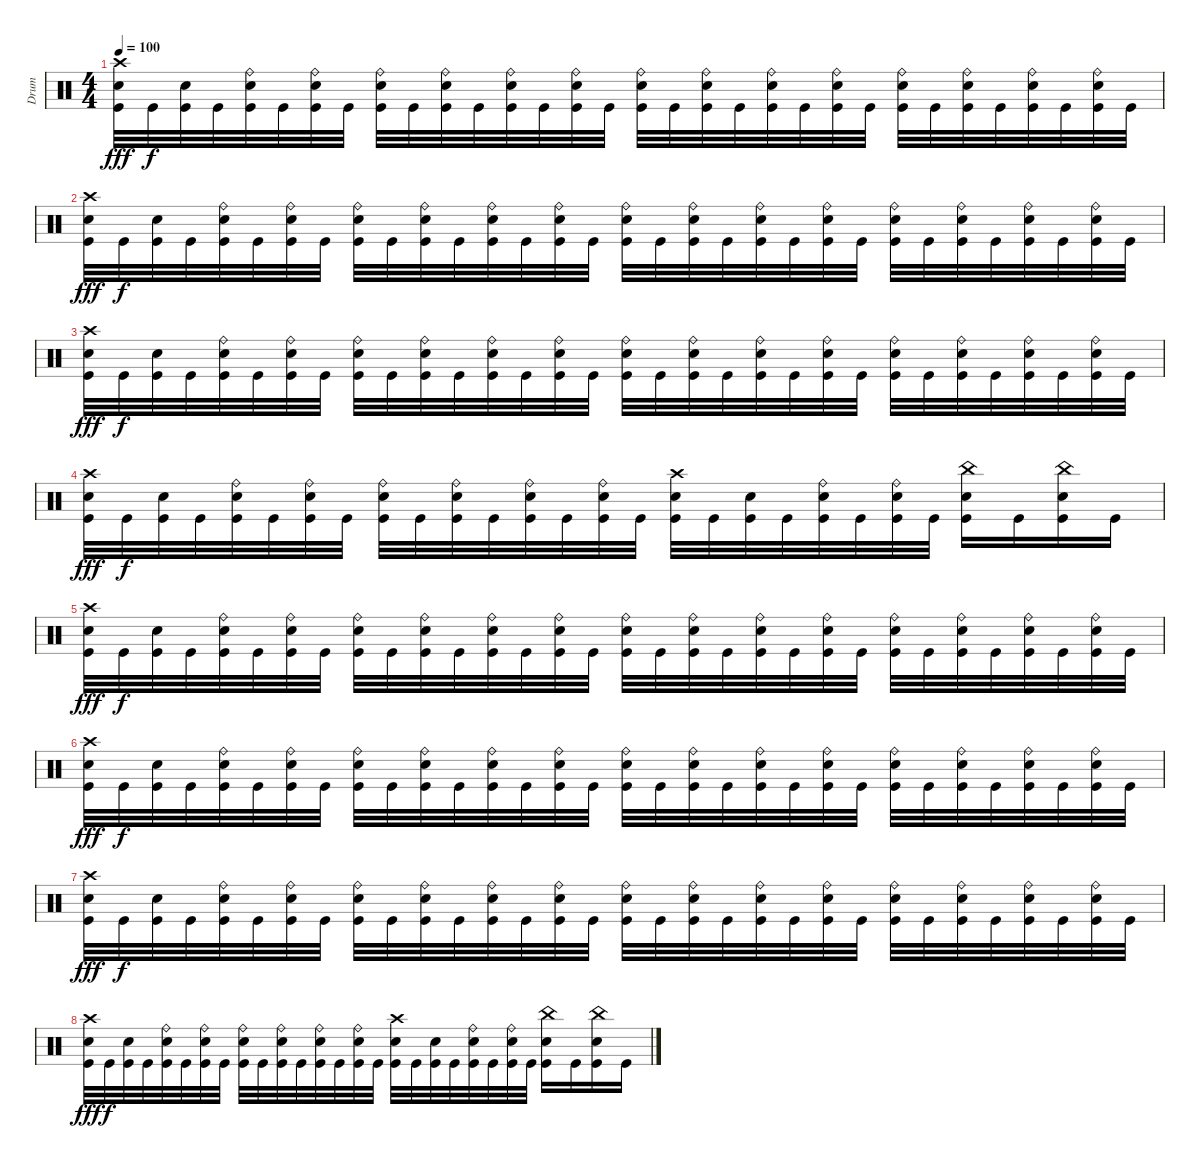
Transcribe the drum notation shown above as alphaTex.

\track ("Drum" "Drum") {instrument percussion}
\staff {score}
\articulation defaults
\ts (4 4)
\tempo 100
\clef neutral
\ks c
("Crash high (hit)" "Electric Snare (hit)" "Kick (hit)").32{dy fff} "Kick (hit)".32{dy f} ("Electric Snare (hit)" "Kick (hit)").32 "Kick (hit)".32 ("Ride (bell)" "Electric Snare (hit)" "Kick (hit)").32 "Kick (hit)".32 ("Ride (bell)" "Electric Snare (hit)" "Kick (hit)").32 "Kick (hit)".32 ("Ride (bell)" "Electric Snare (hit)" "Kick (hit)").32 "Kick (hit)".32 ("Ride (bell)" "Electric Snare (hit)" "Kick (hit)").32 "Kick (hit)".32 ("Ride (bell)" "Electric Snare (hit)" "Kick (hit)").32 "Kick (hit)".32 ("Ride (bell)" "Electric Snare (hit)" "Kick (hit)").32 "Kick (hit)".32 ("Ride (bell)" "Electric Snare (hit)" "Kick (hit)").32 "Kick (hit)".32 ("Ride (bell)" "Electric Snare (hit)" "Kick (hit)").32 "Kick (hit)".32 ("Ride (bell)" "Electric Snare (hit)" "Kick (hit)").32 "Kick (hit)".32 ("Ride (bell)" "Electric Snare (hit)" "Kick (hit)").32 "Kick (hit)".32 ("Ride (bell)" "Electric Snare (hit)" "Kick (hit)").32 "Kick (hit)".32 ("Ride (bell)" "Electric Snare (hit)" "Kick (hit)").32 "Kick (hit)".32 ("Ride (bell)" "Electric Snare (hit)" "Kick (hit)").32 "Kick (hit)".32 ("Ride (bell)" "Electric Snare (hit)" "Kick (hit)").32 "Kick (hit)".32 |
("Crash high (hit)" "Electric Snare (hit)" "Kick (hit)").32{dy fff} "Kick (hit)".32{dy f} ("Electric Snare (hit)" "Kick (hit)").32 "Kick (hit)".32 ("Ride (bell)" "Electric Snare (hit)" "Kick (hit)").32 "Kick (hit)".32 ("Ride (bell)" "Electric Snare (hit)" "Kick (hit)").32 "Kick (hit)".32 ("Ride (bell)" "Electric Snare (hit)" "Kick (hit)").32 "Kick (hit)".32 ("Ride (bell)" "Electric Snare (hit)" "Kick (hit)").32 "Kick (hit)".32 ("Ride (bell)" "Electric Snare (hit)" "Kick (hit)").32 "Kick (hit)".32 ("Ride (bell)" "Electric Snare (hit)" "Kick (hit)").32 "Kick (hit)".32 ("Ride (bell)" "Electric Snare (hit)" "Kick (hit)").32 "Kick (hit)".32 ("Ride (bell)" "Electric Snare (hit)" "Kick (hit)").32 "Kick (hit)".32 ("Ride (bell)" "Electric Snare (hit)" "Kick (hit)").32 "Kick (hit)".32 ("Ride (bell)" "Electric Snare (hit)" "Kick (hit)").32 "Kick (hit)".32 ("Ride (bell)" "Electric Snare (hit)" "Kick (hit)").32 "Kick (hit)".32 ("Ride (bell)" "Electric Snare (hit)" "Kick (hit)").32 "Kick (hit)".32 ("Ride (bell)" "Electric Snare (hit)" "Kick (hit)").32 "Kick (hit)".32 ("Ride (bell)" "Electric Snare (hit)" "Kick (hit)").32 "Kick (hit)".32 |
("Crash high (hit)" "Electric Snare (hit)" "Kick (hit)").32{dy fff} "Kick (hit)".32{dy f} ("Electric Snare (hit)" "Kick (hit)").32 "Kick (hit)".32 ("Ride (bell)" "Electric Snare (hit)" "Kick (hit)").32 "Kick (hit)".32 ("Ride (bell)" "Electric Snare (hit)" "Kick (hit)").32 "Kick (hit)".32 ("Ride (bell)" "Electric Snare (hit)" "Kick (hit)").32 "Kick (hit)".32 ("Ride (bell)" "Electric Snare (hit)" "Kick (hit)").32 "Kick (hit)".32 ("Ride (bell)" "Electric Snare (hit)" "Kick (hit)").32 "Kick (hit)".32 ("Ride (bell)" "Electric Snare (hit)" "Kick (hit)").32 "Kick (hit)".32 ("Ride (bell)" "Electric Snare (hit)" "Kick (hit)").32 "Kick (hit)".32 ("Ride (bell)" "Electric Snare (hit)" "Kick (hit)").32 "Kick (hit)".32 ("Ride (bell)" "Electric Snare (hit)" "Kick (hit)").32 "Kick (hit)".32 ("Ride (bell)" "Electric Snare (hit)" "Kick (hit)").32 "Kick (hit)".32 ("Ride (bell)" "Electric Snare (hit)" "Kick (hit)").32 "Kick (hit)".32 ("Ride (bell)" "Electric Snare (hit)" "Kick (hit)").32 "Kick (hit)".32 ("Ride (bell)" "Electric Snare (hit)" "Kick (hit)").32 "Kick (hit)".32 ("Ride (bell)" "Electric Snare (hit)" "Kick (hit)").32 "Kick (hit)".32 |
("Crash high (hit)" "Electric Snare (hit)" "Kick (hit)").32{dy fff} "Kick (hit)".32{dy f} ("Electric Snare (hit)" "Kick (hit)").32 "Kick (hit)".32 ("Ride (bell)" "Electric Snare (hit)" "Kick (hit)").32 "Kick (hit)".32 ("Ride (bell)" "Electric Snare (hit)" "Kick (hit)").32 "Kick (hit)".32 ("Ride (bell)" "Electric Snare (hit)" "Kick (hit)").32 "Kick (hit)".32 ("Ride (bell)" "Electric Snare (hit)" "Kick (hit)").32 "Kick (hit)".32 ("Ride (bell)" "Electric Snare (hit)" "Kick (hit)").32 "Kick (hit)".32 ("Ride (bell)" "Electric Snare (hit)" "Kick (hit)").32 "Kick (hit)".32 ("Crash high (hit)" "Electric Snare (hit)" "Kick (hit)").32 "Kick (hit)".32 ("Electric Snare (hit)" "Kick (hit)").32 "Kick (hit)".32 ("Ride (bell)" "Electric Snare (hit)" "Kick (hit)").32 "Kick (hit)".32 ("Ride (bell)" "Electric Snare (hit)" "Kick (hit)").32 "Kick (hit)".32 ("China (hit)" "Electric Snare (hit)" "Kick (hit)").16 "Kick (hit)".16 ("China (hit)" "Electric Snare (hit)" "Kick (hit)").16 "Kick (hit)".16 |
("Crash high (hit)" "Electric Snare (hit)" "Kick (hit)").32{dy fff} "Kick (hit)".32{dy f} ("Electric Snare (hit)" "Kick (hit)").32 "Kick (hit)".32 ("Ride (bell)" "Electric Snare (hit)" "Kick (hit)").32 "Kick (hit)".32 ("Ride (bell)" "Electric Snare (hit)" "Kick (hit)").32 "Kick (hit)".32 ("Ride (bell)" "Electric Snare (hit)" "Kick (hit)").32 "Kick (hit)".32 ("Ride (bell)" "Electric Snare (hit)" "Kick (hit)").32 "Kick (hit)".32 ("Ride (bell)" "Electric Snare (hit)" "Kick (hit)").32 "Kick (hit)".32 ("Ride (bell)" "Electric Snare (hit)" "Kick (hit)").32 "Kick (hit)".32 ("Ride (bell)" "Electric Snare (hit)" "Kick (hit)").32 "Kick (hit)".32 ("Ride (bell)" "Electric Snare (hit)" "Kick (hit)").32 "Kick (hit)".32 ("Ride (bell)" "Electric Snare (hit)" "Kick (hit)").32 "Kick (hit)".32 ("Ride (bell)" "Electric Snare (hit)" "Kick (hit)").32 "Kick (hit)".32 ("Ride (bell)" "Electric Snare (hit)" "Kick (hit)").32 "Kick (hit)".32 ("Ride (bell)" "Electric Snare (hit)" "Kick (hit)").32 "Kick (hit)".32 ("Ride (bell)" "Electric Snare (hit)" "Kick (hit)").32 "Kick (hit)".32 ("Ride (bell)" "Electric Snare (hit)" "Kick (hit)").32 "Kick (hit)".32 |
("Crash high (hit)" "Electric Snare (hit)" "Kick (hit)").32{dy fff} "Kick (hit)".32{dy f} ("Electric Snare (hit)" "Kick (hit)").32 "Kick (hit)".32 ("Ride (bell)" "Electric Snare (hit)" "Kick (hit)").32 "Kick (hit)".32 ("Ride (bell)" "Electric Snare (hit)" "Kick (hit)").32 "Kick (hit)".32 ("Ride (bell)" "Electric Snare (hit)" "Kick (hit)").32 "Kick (hit)".32 ("Ride (bell)" "Electric Snare (hit)" "Kick (hit)").32 "Kick (hit)".32 ("Ride (bell)" "Electric Snare (hit)" "Kick (hit)").32 "Kick (hit)".32 ("Ride (bell)" "Electric Snare (hit)" "Kick (hit)").32 "Kick (hit)".32 ("Ride (bell)" "Electric Snare (hit)" "Kick (hit)").32 "Kick (hit)".32 ("Ride (bell)" "Electric Snare (hit)" "Kick (hit)").32 "Kick (hit)".32 ("Ride (bell)" "Electric Snare (hit)" "Kick (hit)").32 "Kick (hit)".32 ("Ride (bell)" "Electric Snare (hit)" "Kick (hit)").32 "Kick (hit)".32 ("Ride (bell)" "Electric Snare (hit)" "Kick (hit)").32 "Kick (hit)".32 ("Ride (bell)" "Electric Snare (hit)" "Kick (hit)").32 "Kick (hit)".32 ("Ride (bell)" "Electric Snare (hit)" "Kick (hit)").32 "Kick (hit)".32 ("Ride (bell)" "Electric Snare (hit)" "Kick (hit)").32 "Kick (hit)".32 |
("Crash high (hit)" "Electric Snare (hit)" "Kick (hit)").32{dy fff} "Kick (hit)".32{dy f} ("Electric Snare (hit)" "Kick (hit)").32 "Kick (hit)".32 ("Ride (bell)" "Electric Snare (hit)" "Kick (hit)").32 "Kick (hit)".32 ("Ride (bell)" "Electric Snare (hit)" "Kick (hit)").32 "Kick (hit)".32 ("Ride (bell)" "Electric Snare (hit)" "Kick (hit)").32 "Kick (hit)".32 ("Ride (bell)" "Electric Snare (hit)" "Kick (hit)").32 "Kick (hit)".32 ("Ride (bell)" "Electric Snare (hit)" "Kick (hit)").32 "Kick (hit)".32 ("Ride (bell)" "Electric Snare (hit)" "Kick (hit)").32 "Kick (hit)".32 ("Ride (bell)" "Electric Snare (hit)" "Kick (hit)").32 "Kick (hit)".32 ("Ride (bell)" "Electric Snare (hit)" "Kick (hit)").32 "Kick (hit)".32 ("Ride (bell)" "Electric Snare (hit)" "Kick (hit)").32 "Kick (hit)".32 ("Ride (bell)" "Electric Snare (hit)" "Kick (hit)").32 "Kick (hit)".32 ("Ride (bell)" "Electric Snare (hit)" "Kick (hit)").32 "Kick (hit)".32 ("Ride (bell)" "Electric Snare (hit)" "Kick (hit)").32 "Kick (hit)".32 ("Ride (bell)" "Electric Snare (hit)" "Kick (hit)").32 "Kick (hit)".32 ("Ride (bell)" "Electric Snare (hit)" "Kick (hit)").32 "Kick (hit)".32 |
("Crash high (hit)" "Electric Snare (hit)" "Kick (hit)").32{dy fff} "Kick (hit)".32{dy f} ("Electric Snare (hit)" "Kick (hit)").32 "Kick (hit)".32 ("Ride (bell)" "Electric Snare (hit)" "Kick (hit)").32 "Kick (hit)".32 ("Ride (bell)" "Electric Snare (hit)" "Kick (hit)").32 "Kick (hit)".32 ("Ride (bell)" "Electric Snare (hit)" "Kick (hit)").32 "Kick (hit)".32 ("Ride (bell)" "Electric Snare (hit)" "Kick (hit)").32 "Kick (hit)".32 ("Ride (bell)" "Electric Snare (hit)" "Kick (hit)").32 "Kick (hit)".32 ("Ride (bell)" "Electric Snare (hit)" "Kick (hit)").32 "Kick (hit)".32 ("Crash high (hit)" "Electric Snare (hit)" "Kick (hit)").32 "Kick (hit)".32 ("Electric Snare (hit)" "Kick (hit)").32 "Kick (hit)".32 ("Ride (bell)" "Electric Snare (hit)" "Kick (hit)").32 "Kick (hit)".32 ("Ride (bell)" "Electric Snare (hit)" "Kick (hit)").32 "Kick (hit)".32 ("China (hit)" "Electric Snare (hit)" "Kick (hit)").16 "Kick (hit)".16 ("China (hit)" "Electric Snare (hit)" "Kick (hit)").16 "Kick (hit)".16
